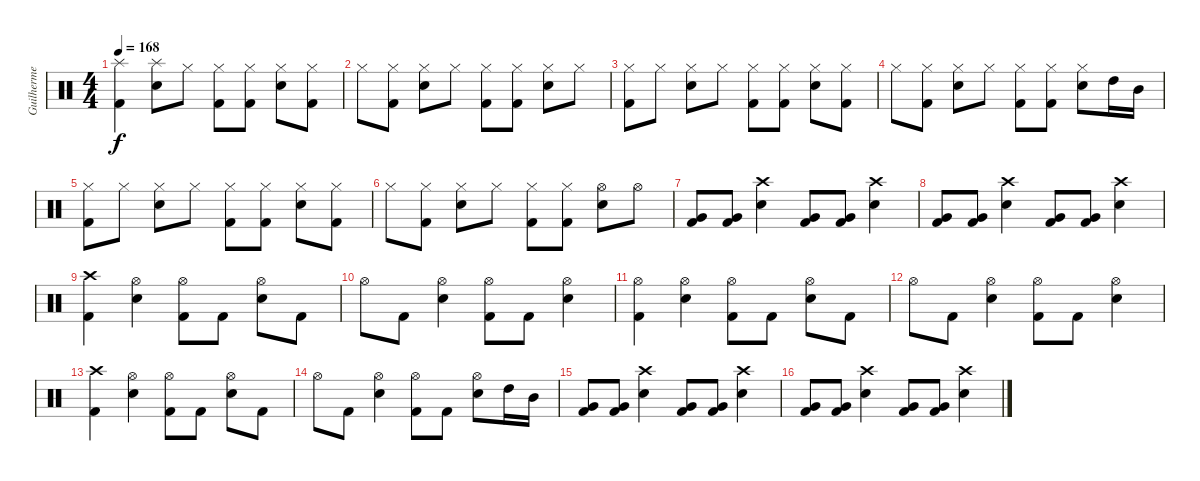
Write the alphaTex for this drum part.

\track ("Guilherme" "Guilherme") {instrument percussion}
\staff {score}
\articulation defaults
\ts (4 4)
\tempo 168
\clef neutral
\ks c
("Splash (hit)" "Kick (hit) 2").4{dy f} ("Splash (hit)" "Snare (hit) 2").8 "Hi-Hat (closed)".8 ("Hi-Hat (closed)" "Kick (hit) 2").8 ("Hi-Hat (closed)" "Kick (hit) 2").8 ("Hi-Hat (closed)" "Snare (hit) 2").8 ("Hi-Hat (closed)" "Kick (hit) 2").8 |
"Hi-Hat (closed)".8 ("Hi-Hat (closed)" "Kick (hit) 2").8 ("Hi-Hat (closed)" "Snare (hit) 2").8 "Hi-Hat (closed)".8 ("Hi-Hat (closed)" "Kick (hit) 2").8 ("Hi-Hat (closed)" "Kick (hit) 2").8 ("Hi-Hat (closed)" "Snare (hit) 2").8 "Hi-Hat (closed)".8 |
("Hi-Hat (closed)" "Kick (hit) 2").8 "Hi-Hat (closed)".8 ("Hi-Hat (closed)" "Snare (hit) 2").8 "Hi-Hat (closed)".8 ("Hi-Hat (closed)" "Kick (hit) 2").8 ("Hi-Hat (closed)" "Kick (hit) 2").8 ("Hi-Hat (closed)" "Snare (hit) 2").8 ("Hi-Hat (closed)" "Kick (hit) 2").8 |
"Hi-Hat (closed)".8 ("Hi-Hat (closed)" "Kick (hit) 2").8 ("Hi-Hat (closed)" "Snare (hit) 2").8 "Hi-Hat (closed)".8 ("Hi-Hat (closed)" "Kick (hit) 2").8 ("Hi-Hat (closed)" "Kick (hit) 2").8 ("Hi-Hat (closed)" "Snare (hit) 2").8 "High Tom (hit)".16 "Mid Tom (hit)".16 |
("Hi-Hat (closed)" "Kick (hit) 2").8 "Hi-Hat (closed)".8 ("Hi-Hat (closed)" "Snare (hit) 2").8 "Hi-Hat (closed)".8 ("Hi-Hat (closed)" "Kick (hit) 2").8 ("Hi-Hat (closed)" "Kick (hit) 2").8 ("Hi-Hat (closed)" "Snare (hit) 2").8 ("Hi-Hat (closed)" "Kick (hit) 2").8 |
"Hi-Hat (closed)".8 ("Hi-Hat (closed)" "Kick (hit) 2").8 ("Hi-Hat (closed)" "Snare (hit) 2").8 "Hi-Hat (closed)".8 ("Hi-Hat (closed)" "Kick (hit) 2").8 ("Hi-Hat (closed)" "Kick (hit) 2").8 ("Hi-Hat (open)" "Snare (hit) 2").8 "Hi-Hat (open)".8 |
("Very Low Tom (hit)" "Kick (hit) 2").8 ("Very Low Tom (hit)" "Kick (hit) 2").8 ("Crash high (hit)" "Snare (hit) 2").4 ("Very Low Tom (hit)" "Kick (hit) 2").8 ("Very Low Tom (hit)" "Kick (hit) 2").8 ("Crash high (hit)" "Snare (hit) 2").4 |
("Very Low Tom (hit)" "Kick (hit) 2").8 ("Very Low Tom (hit)" "Kick (hit) 2").8 ("Crash high (hit)" "Snare (hit) 2").4 ("Very Low Tom (hit)" "Kick (hit) 2").8 ("Very Low Tom (hit)" "Kick (hit) 2").8 ("Crash high (hit)" "Snare (hit) 2").4 |
("Crash high (hit)" "Kick (hit) 2").4 ("Hi-Hat (open)" "Snare (hit) 2").4 ("Hi-Hat (open)" "Kick (hit) 2").8 "Kick (hit) 2".8 ("Hi-Hat (open)" "Snare (hit) 2").8 "Kick (hit) 2".8 |
"Hi-Hat (open)".8 "Kick (hit) 2".8 ("Hi-Hat (open)" "Snare (hit) 2").4 ("Hi-Hat (open)" "Kick (hit) 2").8 "Kick (hit) 2".8 ("Hi-Hat (open)" "Snare (hit) 2").4 |
("Hi-Hat (open)" "Kick (hit) 2").4 ("Hi-Hat (open)" "Snare (hit) 2").4 ("Hi-Hat (open)" "Kick (hit) 2").8 "Kick (hit) 2".8 ("Hi-Hat (open)" "Snare (hit) 2").8 "Kick (hit) 2".8 |
"Hi-Hat (open)".8 "Kick (hit) 2".8 ("Hi-Hat (open)" "Snare (hit) 2").4 ("Hi-Hat (open)" "Kick (hit) 2").8 "Kick (hit) 2".8 ("Hi-Hat (open)" "Snare (hit) 2").4 |
("Crash high (hit)" "Kick (hit) 2").4 ("Hi-Hat (open)" "Snare (hit) 2").4 ("Hi-Hat (open)" "Kick (hit) 2").8 "Kick (hit) 2".8 ("Hi-Hat (open)" "Snare (hit) 2").8 "Kick (hit) 2".8 |
"Hi-Hat (open)".8 "Kick (hit) 2".8 ("Hi-Hat (open)" "Snare (hit) 2").4 ("Hi-Hat (open)" "Kick (hit) 2").8 "Kick (hit) 2".8 ("Hi-Hat (open)" "Snare (hit) 2").8 "High Tom (hit)".16 "Mid Tom (hit)".16 |
("Very Low Tom (hit)" "Kick (hit) 2").8 ("Very Low Tom (hit)" "Kick (hit) 2").8 ("Crash high (hit)" "Snare (hit) 2").4 ("Very Low Tom (hit)" "Kick (hit) 2").8 ("Very Low Tom (hit)" "Kick (hit) 2").8 ("Crash high (hit)" "Snare (hit) 2").4 |
("Very Low Tom (hit)" "Kick (hit) 2").8 ("Very Low Tom (hit)" "Kick (hit) 2").8 ("Crash high (hit)" "Snare (hit) 2").4 ("Very Low Tom (hit)" "Kick (hit) 2").8 ("Very Low Tom (hit)" "Kick (hit) 2").8 ("Crash high (hit)" "Snare (hit) 2").4
